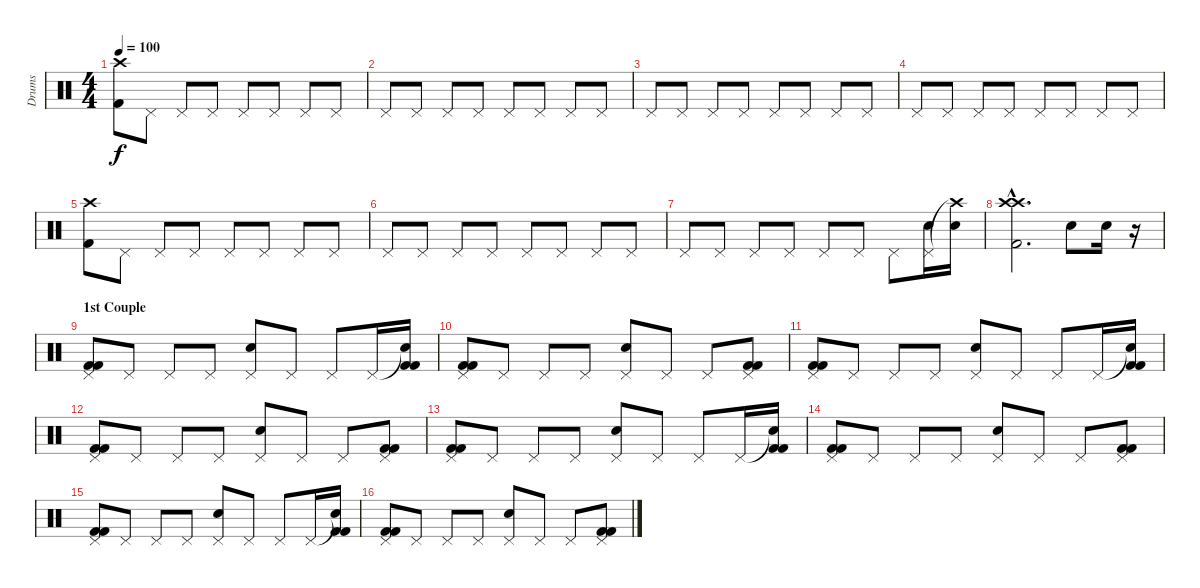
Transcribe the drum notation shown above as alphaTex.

\track ("Drums" "Drums") {instrument percussion}
\staff {score}
\articulation defaults
\ts (4 4)
\tempo 100
\clef neutral
\ks c
("Crash high (hit)" "Kick (hit) 2").8{dy f} "Pedal Hi-Hat (hit)".8 "Pedal Hi-Hat (hit)".8 "Pedal Hi-Hat (hit)".8 "Pedal Hi-Hat (hit)".8 "Pedal Hi-Hat (hit)".8 "Pedal Hi-Hat (hit)".8 "Pedal Hi-Hat (hit)".8 |
"Pedal Hi-Hat (hit)".8 "Pedal Hi-Hat (hit)".8 "Pedal Hi-Hat (hit)".8 "Pedal Hi-Hat (hit)".8 "Pedal Hi-Hat (hit)".8 "Pedal Hi-Hat (hit)".8 "Pedal Hi-Hat (hit)".8 "Pedal Hi-Hat (hit)".8 |
"Pedal Hi-Hat (hit)".8 "Pedal Hi-Hat (hit)".8 "Pedal Hi-Hat (hit)".8 "Pedal Hi-Hat (hit)".8 "Pedal Hi-Hat (hit)".8 "Pedal Hi-Hat (hit)".8 "Pedal Hi-Hat (hit)".8 "Pedal Hi-Hat (hit)".8 |
"Pedal Hi-Hat (hit)".8 "Pedal Hi-Hat (hit)".8 "Pedal Hi-Hat (hit)".8 "Pedal Hi-Hat (hit)".8 "Pedal Hi-Hat (hit)".8 "Pedal Hi-Hat (hit)".8 "Pedal Hi-Hat (hit)".8 "Pedal Hi-Hat (hit)".8 |
("Crash high (hit)" "Kick (hit) 2").8 "Pedal Hi-Hat (hit)".8 "Pedal Hi-Hat (hit)".8 "Pedal Hi-Hat (hit)".8 "Pedal Hi-Hat (hit)".8 "Pedal Hi-Hat (hit)".8 "Pedal Hi-Hat (hit)".8 "Pedal Hi-Hat (hit)".8 |
"Pedal Hi-Hat (hit)".8 "Pedal Hi-Hat (hit)".8 "Pedal Hi-Hat (hit)".8 "Pedal Hi-Hat (hit)".8 "Pedal Hi-Hat (hit)".8 "Pedal Hi-Hat (hit)".8 "Pedal Hi-Hat (hit)".8 "Pedal Hi-Hat (hit)".8 |
"Pedal Hi-Hat (hit)".8 "Pedal Hi-Hat (hit)".8 "Pedal Hi-Hat (hit)".8 "Pedal Hi-Hat (hit)".8 "Pedal Hi-Hat (hit)".8 "Pedal Hi-Hat (hit)".8 "Pedal Hi-Hat (hit)".8 ("Pedal Hi-Hat (hit)" "Snare (hit) 2").16 ("Crash high (hit)"{t} "Snare (hit) 2").16 |
("Crash high (hit)"{hac} "Crash high (hit)"{hac} "Kick (hit) 2"{hac}).2{d} "Snare (hit) 2".8 "Snare (hit) 2".16 r.16 |
\section ("" "1st Couple")
("Pedal Hi-Hat (hit)" "Kick (hit) 2" "Kick (hit) 2").8 "Pedal Hi-Hat (hit)".8 "Pedal Hi-Hat (hit)".8 "Pedal Hi-Hat (hit)".8 ("Pedal Hi-Hat (hit)" "Electric Snare (hit)").8 "Pedal Hi-Hat (hit)".8 "Pedal Hi-Hat (hit)".8 "Pedal Hi-Hat (hit)".16 ("Snare (hit)"{t} "Kick (hit) 2" "Kick (hit) 2").16 |
("Pedal Hi-Hat (hit)" "Kick (hit) 2" "Kick (hit) 2").8 "Pedal Hi-Hat (hit)".8 "Pedal Hi-Hat (hit)".8 "Pedal Hi-Hat (hit)".8 ("Pedal Hi-Hat (hit)" "Electric Snare (hit)").8 "Pedal Hi-Hat (hit)".8 "Pedal Hi-Hat (hit)".8 ("Pedal Hi-Hat (hit)" "Kick (hit) 2" "Kick (hit) 2").8 |
("Pedal Hi-Hat (hit)" "Kick (hit) 2" "Kick (hit) 2").8 "Pedal Hi-Hat (hit)".8 "Pedal Hi-Hat (hit)".8 "Pedal Hi-Hat (hit)".8 ("Pedal Hi-Hat (hit)" "Electric Snare (hit)").8 "Pedal Hi-Hat (hit)".8 "Pedal Hi-Hat (hit)".8 "Pedal Hi-Hat (hit)".16 ("Snare (hit)"{t} "Kick (hit) 2" "Kick (hit) 2").16 |
("Pedal Hi-Hat (hit)" "Kick (hit) 2" "Kick (hit) 2").8 "Pedal Hi-Hat (hit)".8 "Pedal Hi-Hat (hit)".8 "Pedal Hi-Hat (hit)".8 ("Pedal Hi-Hat (hit)" "Electric Snare (hit)").8 "Pedal Hi-Hat (hit)".8 "Pedal Hi-Hat (hit)".8 ("Pedal Hi-Hat (hit)" "Kick (hit) 2" "Kick (hit) 2").8 |
("Pedal Hi-Hat (hit)" "Kick (hit) 2" "Kick (hit) 2").8 "Pedal Hi-Hat (hit)".8 "Pedal Hi-Hat (hit)".8 "Pedal Hi-Hat (hit)".8 ("Pedal Hi-Hat (hit)" "Electric Snare (hit)").8 "Pedal Hi-Hat (hit)".8 "Pedal Hi-Hat (hit)".8 "Pedal Hi-Hat (hit)".16 ("Snare (hit)"{t} "Kick (hit) 2" "Kick (hit) 2").16 |
("Pedal Hi-Hat (hit)" "Kick (hit) 2" "Kick (hit) 2").8 "Pedal Hi-Hat (hit)".8 "Pedal Hi-Hat (hit)".8 "Pedal Hi-Hat (hit)".8 ("Pedal Hi-Hat (hit)" "Electric Snare (hit)").8 "Pedal Hi-Hat (hit)".8 "Pedal Hi-Hat (hit)".8 ("Pedal Hi-Hat (hit)" "Kick (hit) 2" "Kick (hit) 2").8 |
("Pedal Hi-Hat (hit)" "Kick (hit) 2" "Kick (hit) 2").8 "Pedal Hi-Hat (hit)".8 "Pedal Hi-Hat (hit)".8 "Pedal Hi-Hat (hit)".8 ("Pedal Hi-Hat (hit)" "Electric Snare (hit)").8 "Pedal Hi-Hat (hit)".8 "Pedal Hi-Hat (hit)".8 "Pedal Hi-Hat (hit)".16 ("Snare (hit)"{t} "Kick (hit) 2" "Kick (hit) 2").16 |
("Pedal Hi-Hat (hit)" "Kick (hit) 2" "Kick (hit) 2").8 "Pedal Hi-Hat (hit)".8 "Pedal Hi-Hat (hit)".8 "Pedal Hi-Hat (hit)".8 ("Pedal Hi-Hat (hit)" "Electric Snare (hit)").8 "Pedal Hi-Hat (hit)".8 "Pedal Hi-Hat (hit)".8 ("Pedal Hi-Hat (hit)" "Kick (hit) 2" "Kick (hit) 2").8
